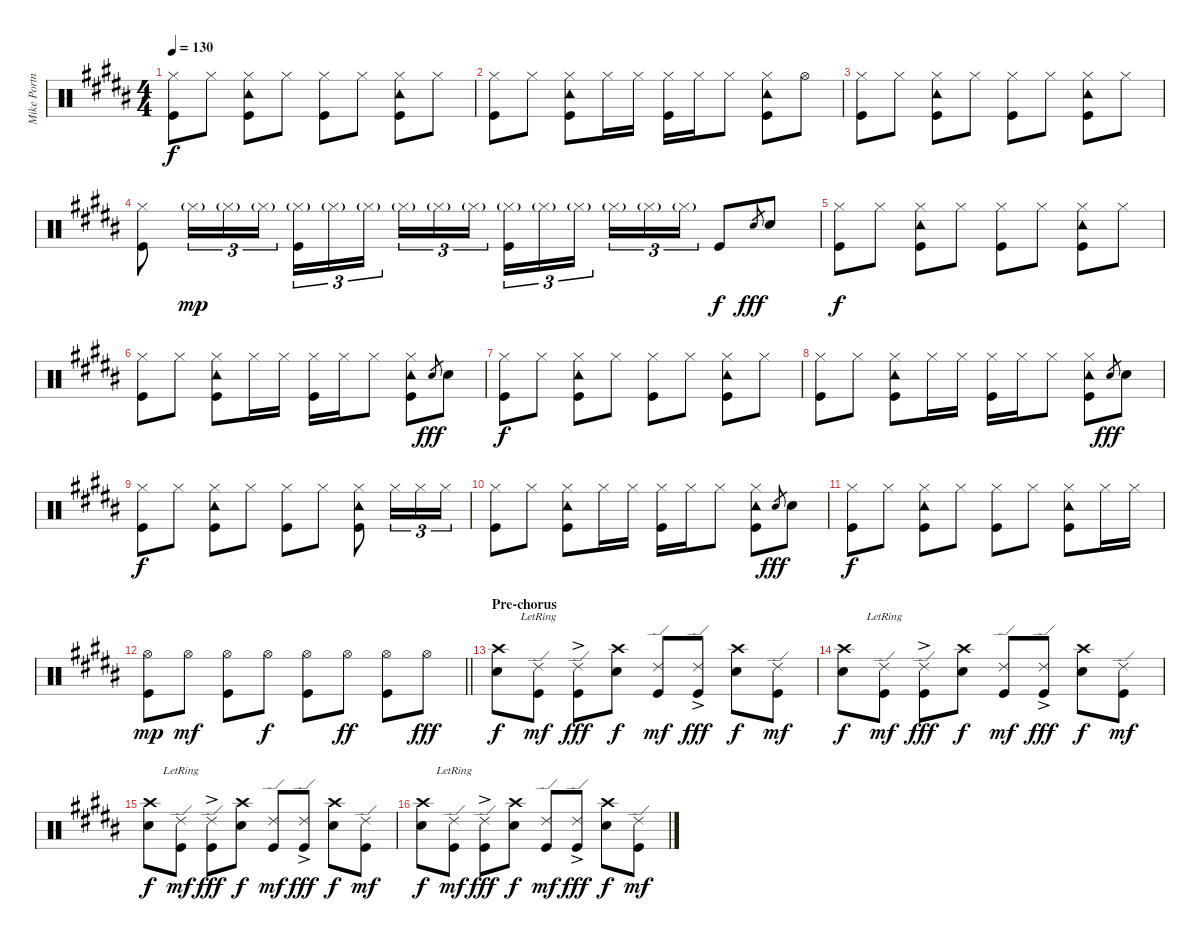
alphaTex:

\track ("Mike Portnoy" "Mike Portn") {instrument percussion}
\staff {score}
\articulation defaults
\ts (4 4)
\tempo 130
\clef neutral
\ks g#minor
("Hi-Hat (closed)" "Kick (hit)").8{dy f} "Hi-Hat (closed)".8 ("Hi-Hat (closed)" "Tambourine (hit)" "Kick (hit)").8 "Hi-Hat (closed)".8 ("Hi-Hat (closed)" "Kick (hit)").8 "Hi-Hat (closed)".8 ("Hi-Hat (closed)" "Tambourine (hit)" "Kick (hit)").8 "Hi-Hat (closed)".8 |
("Hi-Hat (closed)" "Kick (hit)").8 "Hi-Hat (closed)".8 ("Hi-Hat (closed)" "Tambourine (hit)" "Kick (hit)").8 "Hi-Hat (closed)".16 "Hi-Hat (closed)".16 ("Hi-Hat (closed)" "Kick (hit)").16 "Hi-Hat (closed)".16 "Hi-Hat (closed)".8 ("Hi-Hat (closed)" "Tambourine (hit)" "Kick (hit)").8 "Hi-Hat (open)".8 |
("Hi-Hat (closed)" "Kick (hit)").8 "Hi-Hat (closed)".8 ("Hi-Hat (closed)" "Tambourine (hit)" "Kick (hit)").8 "Hi-Hat (closed)".8 ("Hi-Hat (closed)" "Kick (hit)").8 "Hi-Hat (closed)".8 ("Hi-Hat (closed)" "Tambourine (hit)" "Kick (hit)").8 "Hi-Hat (closed)".8 |
("Hi-Hat (closed)" "Kick (hit)").8 "Hi-Hat (closed)"{g}.16{tu (3 2) dy mp} "Hi-Hat (closed)"{g}.16{tu (3 2)} "Hi-Hat (closed)"{g}.16{tu (3 2)} ("Hi-Hat (closed)"{g} "Kick (hit)").16{tu (3 2)} "Hi-Hat (closed)"{g}.16{tu (3 2)} "Hi-Hat (closed)"{g}.16{tu (3 2)} "Hi-Hat (closed)"{g}.16{tu (3 2)} "Hi-Hat (closed)"{g}.16{tu (3 2)} "Hi-Hat (closed)"{g}.16{tu (3 2)} ("Hi-Hat (closed)"{g} "Kick (hit)").16{tu (3 2)} "Hi-Hat (closed)"{g}.16{tu (3 2)} "Hi-Hat (closed)"{g}.16{tu (3 2)} "Hi-Hat (closed)"{g}.16{tu (3 2)} "Hi-Hat (closed)"{g}.16{tu (3 2)} "Hi-Hat (closed)"{g}.16{tu (3 2)} "Kick (hit)".8{dy f} "Electric Snare (hit)".8{gr dy fff} "Electric Snare (hit)".8 |
("Hi-Hat (closed)" "Kick (hit)").8{dy f} "Hi-Hat (closed)".8 ("Hi-Hat (closed)" "Tambourine (hit)" "Kick (hit)").8 "Hi-Hat (closed)".8 ("Hi-Hat (closed)" "Kick (hit)").8 "Hi-Hat (closed)".8 ("Hi-Hat (closed)" "Tambourine (hit)" "Kick (hit)").8 "Hi-Hat (closed)".8 |
("Hi-Hat (closed)" "Kick (hit)").8 "Hi-Hat (closed)".8 ("Hi-Hat (closed)" "Tambourine (hit)" "Kick (hit)").8 "Hi-Hat (closed)".16 "Hi-Hat (closed)".16 ("Hi-Hat (closed)" "Kick (hit)").16 "Hi-Hat (closed)".16 "Hi-Hat (closed)".8 ("Hi-Hat (closed)" "Tambourine (hit)" "Kick (hit)").8 "Electric Snare (hit)".8{gr dy fff} "Electric Snare (hit)".8 |
("Hi-Hat (closed)" "Kick (hit)").8{dy f} "Hi-Hat (closed)".8 ("Hi-Hat (closed)" "Tambourine (hit)" "Kick (hit)").8 "Hi-Hat (closed)".8 ("Hi-Hat (closed)" "Kick (hit)").8 "Hi-Hat (closed)".8 ("Hi-Hat (closed)" "Tambourine (hit)" "Kick (hit)").8 "Hi-Hat (closed)".8 |
("Hi-Hat (closed)" "Kick (hit)").8 "Hi-Hat (closed)".8 ("Hi-Hat (closed)" "Tambourine (hit)" "Kick (hit)").8 "Hi-Hat (closed)".16 "Hi-Hat (closed)".16 ("Hi-Hat (closed)" "Kick (hit)").16 "Hi-Hat (closed)".16 "Hi-Hat (closed)".8 ("Hi-Hat (closed)" "Tambourine (hit)" "Kick (hit)").8 "Electric Snare (hit)".8{gr dy fff} "Electric Snare (hit)".8 |
("Hi-Hat (closed)" "Kick (hit)").8{dy f} "Hi-Hat (closed)".8 ("Hi-Hat (closed)" "Tambourine (hit)" "Kick (hit)").8 "Hi-Hat (closed)".8 ("Hi-Hat (closed)" "Kick (hit)").8 "Hi-Hat (closed)".8 ("Hi-Hat (closed)" "Tambourine (hit)" "Kick (hit)").8 "Hi-Hat (closed)".16{tu (3 2)} "Hi-Hat (closed)".16{tu (3 2)} "Hi-Hat (closed)".16{tu (3 2)} |
("Hi-Hat (closed)" "Kick (hit)").8 "Hi-Hat (closed)".8 ("Hi-Hat (closed)" "Tambourine (hit)" "Kick (hit)").8 "Hi-Hat (closed)".16 "Hi-Hat (closed)".16 ("Hi-Hat (closed)" "Kick (hit)").16 "Hi-Hat (closed)".16 "Hi-Hat (closed)".8 ("Hi-Hat (closed)" "Tambourine (hit)" "Kick (hit)").8 "Electric Snare (hit)".8{gr dy fff} "Electric Snare (hit)".8 |
("Hi-Hat (closed)" "Kick (hit)").8{dy f} "Hi-Hat (closed)".8 ("Hi-Hat (closed)" "Tambourine (hit)" "Kick (hit)").8 "Hi-Hat (closed)".8 ("Hi-Hat (closed)" "Kick (hit)").8 "Hi-Hat (closed)".8 ("Hi-Hat (closed)" "Tambourine (hit)" "Kick (hit)").8 "Hi-Hat (closed)".16 "Hi-Hat (closed)".16 |
\barLineRight lightlight
("Hi-Hat (open)" "Kick (hit)").8{dy mp} "Hi-Hat (open)".8{dy mf} ("Hi-Hat (open)" "Kick (hit)").8 "Hi-Hat (open)".8{dy f} ("Hi-Hat (open)" "Kick (hit)").8 "Hi-Hat (open)".8{dy ff} ("Hi-Hat (open)" "Kick (hit)").8 "Hi-Hat (open)".8{dy fff} |
\section ("" "Pre-chorus")
("Crash high (hit)" "Electric Snare (hit)").8{dy f} ("Ride (edge) 2"{lr} "Kick (hit)").8{dy mf} ("Ride (edge) 2" "Kick (hit)"{ac}).8{dy fff} ("Crash high (hit)" "Electric Snare (hit)").8{dy f} ("Ride (edge) 2" "Kick (hit)").8{dy mf} ("Ride (edge) 2" "Kick (hit)"{ac}).8{dy fff} ("Crash high (hit)" "Electric Snare (hit)").8{dy f} ("Ride (edge) 2" "Kick (hit)").8{dy mf} |
("Crash high (hit)" "Electric Snare (hit)").8{dy f} ("Ride (edge) 2"{lr} "Kick (hit)").8{dy mf} ("Ride (edge) 2" "Kick (hit)"{ac}).8{dy fff} ("Crash high (hit)" "Electric Snare (hit)").8{dy f} ("Ride (edge) 2" "Kick (hit)").8{dy mf} ("Ride (edge) 2" "Kick (hit)"{ac}).8{dy fff} ("Crash high (hit)" "Electric Snare (hit)").8{dy f} ("Ride (edge) 2" "Kick (hit)").8{dy mf} |
("Crash high (hit)" "Electric Snare (hit)").8{dy f} ("Ride (edge) 2"{lr} "Kick (hit)").8{dy mf} ("Ride (edge) 2" "Kick (hit)"{ac}).8{dy fff} ("Crash high (hit)" "Electric Snare (hit)").8{dy f} ("Ride (edge) 2" "Kick (hit)").8{dy mf} ("Ride (edge) 2" "Kick (hit)"{ac}).8{dy fff} ("Crash high (hit)" "Electric Snare (hit)").8{dy f} ("Ride (edge) 2" "Kick (hit)").8{dy mf} |
("Crash high (hit)" "Electric Snare (hit)").8{dy f} ("Ride (edge) 2"{lr} "Kick (hit)").8{dy mf} ("Ride (edge) 2" "Kick (hit)"{ac}).8{dy fff} ("Crash high (hit)" "Electric Snare (hit)").8{dy f} ("Ride (edge) 2" "Kick (hit)").8{dy mf} ("Ride (edge) 2" "Kick (hit)"{ac}).8{dy fff} ("Crash high (hit)" "Electric Snare (hit)").8{dy f} ("Ride (edge) 2" "Kick (hit)").8{dy mf}
